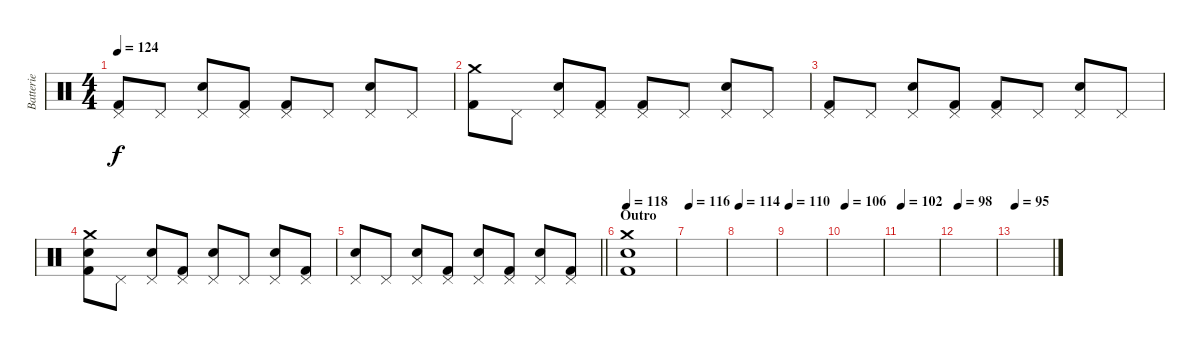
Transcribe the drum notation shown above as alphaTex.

\track ("Batterie" "Batterie") {instrument percussion}
\staff {score}
\articulation defaults
\ts (4 4)
\tempo 124
\clef neutral
\ks c
("Pedal Hi-Hat (hit)" "Kick (hit) 2").8{dy f} "Pedal Hi-Hat (hit)".8 ("Pedal Hi-Hat (hit)" "Electric Snare (hit)").8 ("Pedal Hi-Hat (hit)" "Kick (hit) 2").8 ("Pedal Hi-Hat (hit)" "Kick (hit) 2").8 "Pedal Hi-Hat (hit)".8 ("Pedal Hi-Hat (hit)" "Electric Snare (hit)").8 "Pedal Hi-Hat (hit)".8 |
("Crash medium (hit)" "Kick (hit) 2").8 "Pedal Hi-Hat (hit)".8 ("Pedal Hi-Hat (hit)" "Electric Snare (hit)").8 ("Pedal Hi-Hat (hit)" "Kick (hit) 2").8 ("Pedal Hi-Hat (hit)" "Kick (hit) 2").8 "Pedal Hi-Hat (hit)".8 ("Pedal Hi-Hat (hit)" "Electric Snare (hit)").8 "Pedal Hi-Hat (hit)".8 |
("Pedal Hi-Hat (hit)" "Kick (hit) 2").8 "Pedal Hi-Hat (hit)".8 ("Pedal Hi-Hat (hit)" "Electric Snare (hit)").8 ("Pedal Hi-Hat (hit)" "Kick (hit) 2").8 ("Pedal Hi-Hat (hit)" "Kick (hit) 2").8 "Pedal Hi-Hat (hit)".8 ("Pedal Hi-Hat (hit)" "Electric Snare (hit)").8 "Pedal Hi-Hat (hit)".8 |
("Crash medium (hit)" "Electric Snare (hit)" "Kick (hit) 2").8 "Pedal Hi-Hat (hit)".8 ("Pedal Hi-Hat (hit)" "Electric Snare (hit)").8 ("Pedal Hi-Hat (hit)" "Kick (hit) 2").8 ("Pedal Hi-Hat (hit)" "Electric Snare (hit)").8 "Pedal Hi-Hat (hit)".8 ("Pedal Hi-Hat (hit)" "Electric Snare (hit)").8 ("Pedal Hi-Hat (hit)" "Kick (hit) 2").8 |
\barLineRight lightlight
("Pedal Hi-Hat (hit)" "Electric Snare (hit)").8 "Pedal Hi-Hat (hit)".8 ("Pedal Hi-Hat (hit)" "Electric Snare (hit)").8 ("Pedal Hi-Hat (hit)" "Kick (hit) 2").8 ("Pedal Hi-Hat (hit)" "Electric Snare (hit)").8 ("Pedal Hi-Hat (hit)" "Kick (hit) 2").8 ("Pedal Hi-Hat (hit)" "Electric Snare (hit)").8 ("Pedal Hi-Hat (hit)" "Kick (hit) 2").8 |
\section ("" "Outro")
\tempo 118
("Crash medium (hit)" "Electric Snare (hit)" "Kick (hit) 2").1 |
\tempo 116
|
\tempo 114
|
\tempo 110
|
\tempo 106
|
\tempo 102
|
\tempo 98
|
\tempo 95
